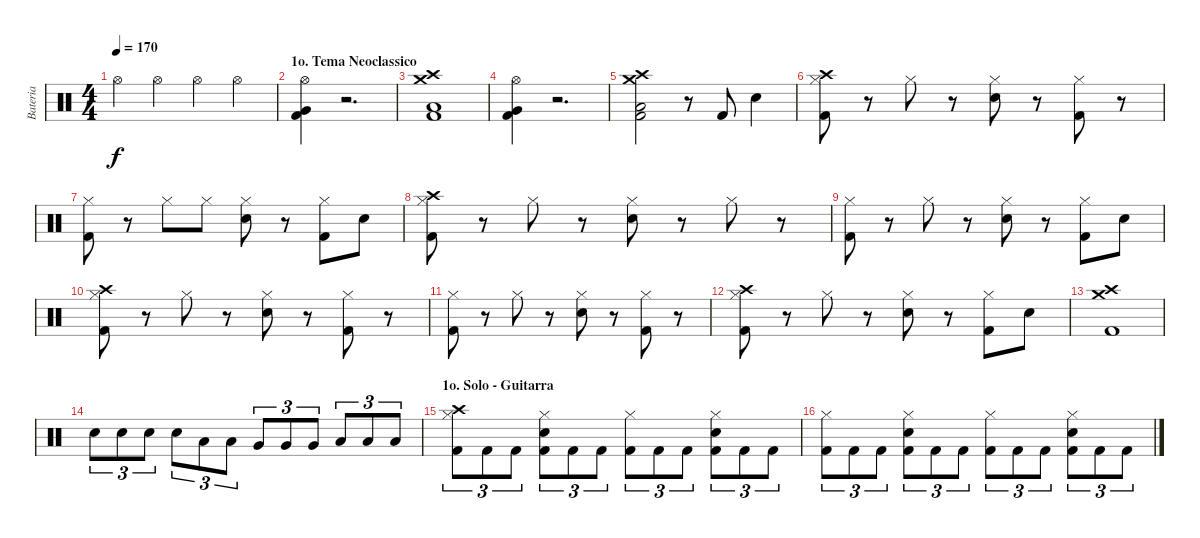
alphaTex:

\track ("Bateria" "Bateria") {instrument percussion}
\staff {score}
\articulation defaults
\ts (4 4)
\tempo 170
\clef neutral
\ks c "Hi-Hat (open)".4{dy f} "Hi-Hat (open)".4 "Hi-Hat (open)".4 "Hi-Hat (open)".4
|
\section ("" "1o. Tema Neoclassico")
("Hi-Hat (open)" "Very Low Tom (hit)" "Kick (hit) 2").4 r.2{d} |
("Low Floor Tom (hit)" "Kick (hit) 2" "Crash medium (hit)" "Crash high (hit)").1 |
("Hi-Hat (open)" "Very Low Tom (hit)" "Kick (hit) 2").4 r.2{d} |
("Low Floor Tom (hit)" "Kick (hit) 2" "Crash medium (hit)" "Crash high (hit)").2 r.8 "Kick (hit) 2".8 "Snare (hit) 2".4 |
("Hi-Hat (closed)" "Kick (hit) 2" "Crash high (hit)").8 r.8 "Hi-Hat (closed)".8 r.8 ("Hi-Hat (closed)" "Snare (hit) 2").8 r.8 ("Hi-Hat (closed)" "Kick (hit) 2").8 r.8 |
("Hi-Hat (closed)" "Kick (hit) 2").8 r.8 "Hi-Hat (closed)".8 "Hi-Hat (closed)".8 ("Hi-Hat (closed)" "Snare (hit) 2").8 r.8 ("Hi-Hat (closed)" "Kick (hit) 2").8 "Snare (hit) 2".8 |
("Hi-Hat (closed)" "Kick (hit) 2" "Crash high (hit)").8 r.8 "Hi-Hat (closed)".8 r.8 ("Hi-Hat (closed)" "Snare (hit) 2").8 r.8 "Hi-Hat (closed)".8 r.8 |
("Hi-Hat (closed)" "Kick (hit) 2").8 r.8 "Hi-Hat (closed)".8 r.8 ("Hi-Hat (closed)" "Snare (hit) 2").8 r.8 ("Hi-Hat (closed)" "Kick (hit) 2").8 "Snare (hit) 2".8 |
("Hi-Hat (closed)" "Kick (hit) 2" "Crash high (hit)").8 r.8 "Hi-Hat (closed)".8 r.8 ("Hi-Hat (closed)" "Snare (hit) 2").8 r.8 ("Hi-Hat (closed)" "Kick (hit) 2").8 r.8 |
("Hi-Hat (closed)" "Kick (hit) 2").8 r.8 "Hi-Hat (closed)".8 r.8 ("Hi-Hat (closed)" "Snare (hit) 2").8 r.8 ("Hi-Hat (closed)" "Kick (hit) 2").8 r.8 |
("Hi-Hat (closed)" "Kick (hit) 2" "Crash high (hit)").8 r.8 "Hi-Hat (closed)".8 r.8 ("Hi-Hat (closed)" "Snare (hit) 2").8 r.8 ("Hi-Hat (closed)" "Kick (hit) 2").8 "Snare (hit) 2".8 |
("Kick (hit) 2" "Crash medium (hit)" "Crash high (hit)").1 |
"Snare (hit) 2".8{tu (3 2)} "Snare (hit) 2".8{tu (3 2)} "Snare (hit) 2".8{tu (3 2)} "Snare (hit) 2".8{tu (3 2)} "Low Tom (hit)".8{tu (3 2)} "Low Tom (hit)".8{tu (3 2)} "Very Low Tom (hit)".8{tu (3 2)} "Very Low Tom (hit)".8{tu (3 2)} "Very Low Tom (hit)".8{tu (3 2)} "Low Floor Tom (hit)".8{tu (3 2)} "Low Floor Tom (hit)".8{tu (3 2)} "Low Floor Tom (hit)".8{tu (3 2)} |
\section ("" "1o. Solo - Guitarra")
("Hi-Hat (closed)" "Kick (hit) 2" "Crash high (hit)").8{tu (3 2)} "Kick (hit) 2".8{tu (3 2)} "Kick (hit) 2".8{tu (3 2)} ("Hi-Hat (closed)" "Snare (hit) 2" "Kick (hit) 2").8{tu (3 2)} "Kick (hit) 2".8{tu (3 2)} "Kick (hit) 2".8{tu (3 2)} ("Hi-Hat (closed)" "Kick (hit) 2").8{tu (3 2)} "Kick (hit) 2".8{tu (3 2)} "Kick (hit) 2".8{tu (3 2)} ("Hi-Hat (closed)" "Snare (hit) 2" "Kick (hit) 2").8{tu (3 2)} "Kick (hit) 2".8{tu (3 2)} "Kick (hit) 2".8{tu (3 2)} |
("Hi-Hat (closed)" "Kick (hit) 2").8{tu (3 2)} "Kick (hit) 2".8{tu (3 2)} "Kick (hit) 2".8{tu (3 2)} ("Hi-Hat (closed)" "Snare (hit) 2" "Kick (hit) 2").8{tu (3 2)} "Kick (hit) 2".8{tu (3 2)} "Kick (hit) 2".8{tu (3 2)} ("Hi-Hat (closed)" "Kick (hit) 2").8{tu (3 2)} "Kick (hit) 2".8{tu (3 2)} "Kick (hit) 2".8{tu (3 2)} ("Hi-Hat (closed)" "Snare (hit) 2" "Kick (hit) 2").8{tu (3 2)} "Kick (hit) 2".8{tu (3 2)} "Kick (hit) 2".8{tu (3 2)}
